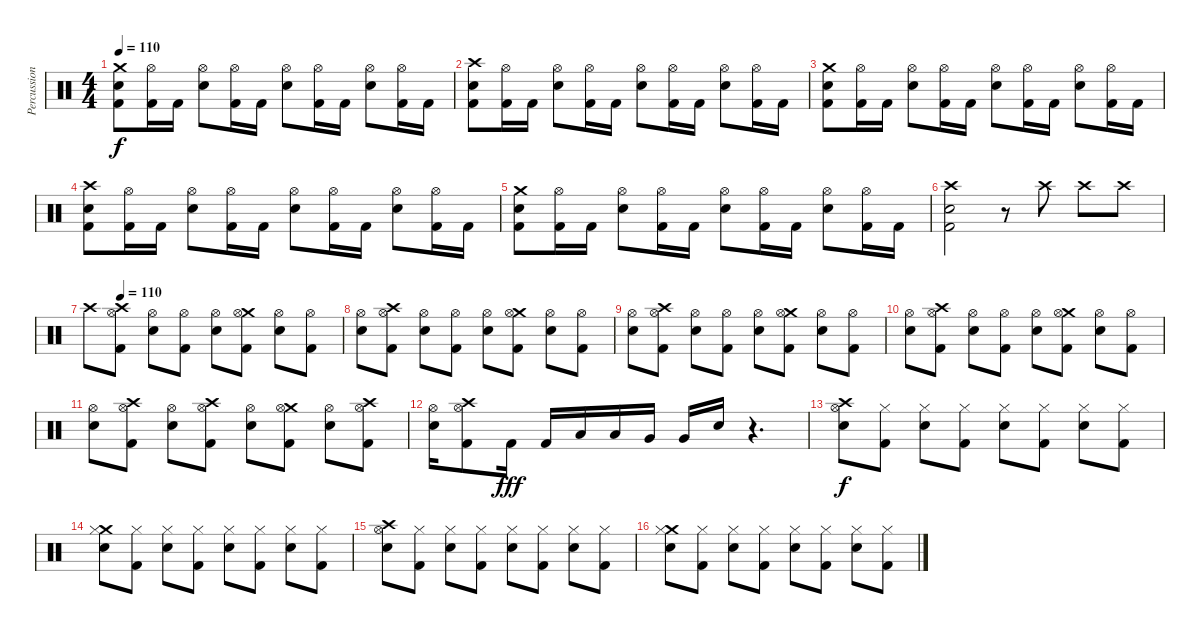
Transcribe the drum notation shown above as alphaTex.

\track ("Percussion" "Percussion") {instrument percussion}
\staff {score}
\articulation defaults
\ts (4 4)
\tempo 110
\clef neutral
\ks c
("Crash medium (hit)" "Electric Snare (hit)" "Kick (hit) 2").8{dy f} ("Hi-Hat (open)" "Kick (hit) 2").16 "Kick (hit) 2".16 ("Hi-Hat (open)" "Electric Snare (hit)").8 ("Hi-Hat (open)" "Kick (hit) 2").16 "Kick (hit) 2".16 ("Hi-Hat (open)" "Electric Snare (hit)").8 ("Hi-Hat (open)" "Kick (hit) 2").16 "Kick (hit) 2".16 ("Hi-Hat (open)" "Electric Snare (hit)").8 ("Hi-Hat (open)" "Kick (hit) 2").16 "Kick (hit) 2".16 |
("Crash high (hit)" "Electric Snare (hit)" "Kick (hit) 2").8 ("Hi-Hat (open)" "Kick (hit) 2").16 "Kick (hit) 2".16 ("Hi-Hat (open)" "Electric Snare (hit)").8 ("Hi-Hat (open)" "Kick (hit) 2").16 "Kick (hit) 2".16 ("Hi-Hat (open)" "Electric Snare (hit)").8 ("Hi-Hat (open)" "Kick (hit) 2").16 "Kick (hit) 2".16 ("Hi-Hat (open)" "Electric Snare (hit)").8 ("Hi-Hat (open)" "Kick (hit) 2").16 "Kick (hit) 2".16 |
("Crash medium (hit)" "Electric Snare (hit)" "Kick (hit) 2").8 ("Hi-Hat (open)" "Kick (hit) 2").16 "Kick (hit) 2".16 ("Hi-Hat (open)" "Electric Snare (hit)").8 ("Hi-Hat (open)" "Kick (hit) 2").16 "Kick (hit) 2".16 ("Hi-Hat (open)" "Electric Snare (hit)").8 ("Hi-Hat (open)" "Kick (hit) 2").16 "Kick (hit) 2".16 ("Hi-Hat (open)" "Electric Snare (hit)").8 ("Hi-Hat (open)" "Kick (hit) 2").16 "Kick (hit) 2".16 |
("Crash high (hit)" "Electric Snare (hit)" "Kick (hit) 2").8 ("Hi-Hat (open)" "Kick (hit) 2").16 "Kick (hit) 2".16 ("Hi-Hat (open)" "Electric Snare (hit)").8 ("Hi-Hat (open)" "Kick (hit) 2").16 "Kick (hit) 2".16 ("Hi-Hat (open)" "Electric Snare (hit)").8 ("Hi-Hat (open)" "Kick (hit) 2").16 "Kick (hit) 2".16 ("Hi-Hat (open)" "Electric Snare (hit)").8 ("Hi-Hat (open)" "Kick (hit) 2").16 "Kick (hit) 2".16 |
("Crash medium (hit)" "Electric Snare (hit)" "Kick (hit) 2").8 ("Hi-Hat (open)" "Kick (hit) 2").16 "Kick (hit) 2".16 ("Hi-Hat (open)" "Electric Snare (hit)").8 ("Hi-Hat (open)" "Kick (hit) 2").16 "Kick (hit) 2".16 ("Hi-Hat (open)" "Electric Snare (hit)").8 ("Hi-Hat (open)" "Kick (hit) 2").16 "Kick (hit) 2".16 ("Hi-Hat (open)" "Electric Snare (hit)").8 ("Hi-Hat (open)" "Kick (hit) 2").16 "Kick (hit) 2".16 |
("Crash high (hit)" "Electric Snare (hit)" "Kick (hit) 2").2 r.8 "Crash high (hit)".8 "Crash high (hit)".8 "Crash high (hit)".8 |
\tempo (110 0.125)
"Crash high (hit)".8 ("Crash high (hit)" "Hi-Hat (open)" "Kick (hit) 2").8 ("Hi-Hat (open)" "Electric Snare (hit)").8 ("Hi-Hat (open)" "Kick (hit) 2").8 ("Hi-Hat (open)" "Electric Snare (hit)").8 ("Crash medium (hit)" "Hi-Hat (open)" "Kick (hit) 2").8 ("Hi-Hat (open)" "Electric Snare (hit)").8 ("Hi-Hat (open)" "Kick (hit) 2").8 |
("Hi-Hat (open)" "Electric Snare (hit)").8 ("Crash high (hit)" "Hi-Hat (open)" "Kick (hit) 2").8 ("Hi-Hat (open)" "Electric Snare (hit)").8 ("Hi-Hat (open)" "Kick (hit) 2").8 ("Hi-Hat (open)" "Electric Snare (hit)").8 ("Crash medium (hit)" "Hi-Hat (open)" "Kick (hit) 2").8 ("Hi-Hat (open)" "Electric Snare (hit)").8 ("Hi-Hat (open)" "Kick (hit) 2").8 |
("Hi-Hat (open)" "Electric Snare (hit)").8 ("Crash high (hit)" "Hi-Hat (open)" "Kick (hit) 2").8 ("Hi-Hat (open)" "Electric Snare (hit)").8 ("Hi-Hat (open)" "Kick (hit) 2").8 ("Hi-Hat (open)" "Electric Snare (hit)").8 ("Crash medium (hit)" "Hi-Hat (open)" "Kick (hit) 2").8 ("Hi-Hat (open)" "Electric Snare (hit)").8 ("Hi-Hat (open)" "Kick (hit) 2").8 |
("Hi-Hat (open)" "Electric Snare (hit)").8 ("Crash high (hit)" "Hi-Hat (open)" "Kick (hit) 2").8 ("Hi-Hat (open)" "Electric Snare (hit)").8 ("Hi-Hat (open)" "Kick (hit) 2").8 ("Hi-Hat (open)" "Electric Snare (hit)").8 ("Crash medium (hit)" "Hi-Hat (open)" "Kick (hit) 2").8 ("Hi-Hat (open)" "Electric Snare (hit)").8 ("Hi-Hat (open)" "Kick (hit) 2").8 |
("Hi-Hat (open)" "Electric Snare (hit)").8 ("Crash high (hit)" "Hi-Hat (open)" "Kick (hit) 2").8 ("Hi-Hat (open)" "Electric Snare (hit)").8 ("Crash high (hit)" "Hi-Hat (open)" "Kick (hit) 2").8 ("Hi-Hat (open)" "Electric Snare (hit)").8 ("Crash medium (hit)" "Hi-Hat (open)" "Kick (hit) 2").8 ("Hi-Hat (open)" "Electric Snare (hit)").8 ("Crash high (hit)" "Hi-Hat (open)" "Kick (hit) 2").8 |
("Hi-Hat (open)" "Electric Snare (hit)").16 ("Crash high (hit)" "Hi-Hat (open)" "Kick (hit) 2").8 "Kick (hit) 2".16{dy fff} "Kick (hit) 2".16 "Low Floor Tom (hit)".16 "Low Floor Tom (hit)".16 "Very Low Tom (hit)".16 "Very Low Tom (hit)".16 "Electric Snare (hit)".16 r.4{d} |
("Crash high (hit)" "Hi-Hat (open)" "Electric Snare (hit)").8{dy f} ("Hi-Hat (closed)" "Kick (hit) 2").8 ("Hi-Hat (closed)" "Electric Snare (hit)").8 ("Hi-Hat (closed)" "Kick (hit) 2").8 ("Hi-Hat (closed)" "Electric Snare (hit)").8 ("Hi-Hat (closed)" "Kick (hit) 2").8 ("Hi-Hat (closed)" "Electric Snare (hit)").8 ("Hi-Hat (closed)" "Kick (hit) 2").8 |
("Crash medium (hit)" "Hi-Hat (closed)" "Electric Snare (hit)").8 ("Hi-Hat (closed)" "Kick (hit) 2").8 ("Hi-Hat (closed)" "Electric Snare (hit)").8 ("Hi-Hat (closed)" "Kick (hit) 2").8 ("Hi-Hat (closed)" "Electric Snare (hit)").8 ("Hi-Hat (closed)" "Kick (hit) 2").8 ("Hi-Hat (closed)" "Electric Snare (hit)").8 ("Hi-Hat (closed)" "Kick (hit) 2").8 |
("Crash high (hit)" "Hi-Hat (open)" "Electric Snare (hit)").8 ("Hi-Hat (closed)" "Kick (hit) 2").8 ("Hi-Hat (closed)" "Electric Snare (hit)").8 ("Hi-Hat (closed)" "Kick (hit) 2").8 ("Hi-Hat (closed)" "Electric Snare (hit)").8 ("Hi-Hat (closed)" "Kick (hit) 2").8 ("Hi-Hat (closed)" "Electric Snare (hit)").8 ("Hi-Hat (closed)" "Kick (hit) 2").8 |
("Crash medium (hit)" "Hi-Hat (closed)" "Electric Snare (hit)").8 ("Hi-Hat (closed)" "Kick (hit) 2").8 ("Hi-Hat (closed)" "Electric Snare (hit)").8 ("Hi-Hat (closed)" "Kick (hit) 2").8 ("Hi-Hat (closed)" "Electric Snare (hit)").8 ("Hi-Hat (closed)" "Kick (hit) 2").8 ("Hi-Hat (closed)" "Electric Snare (hit)").8 ("Hi-Hat (closed)" "Kick (hit) 2").8
